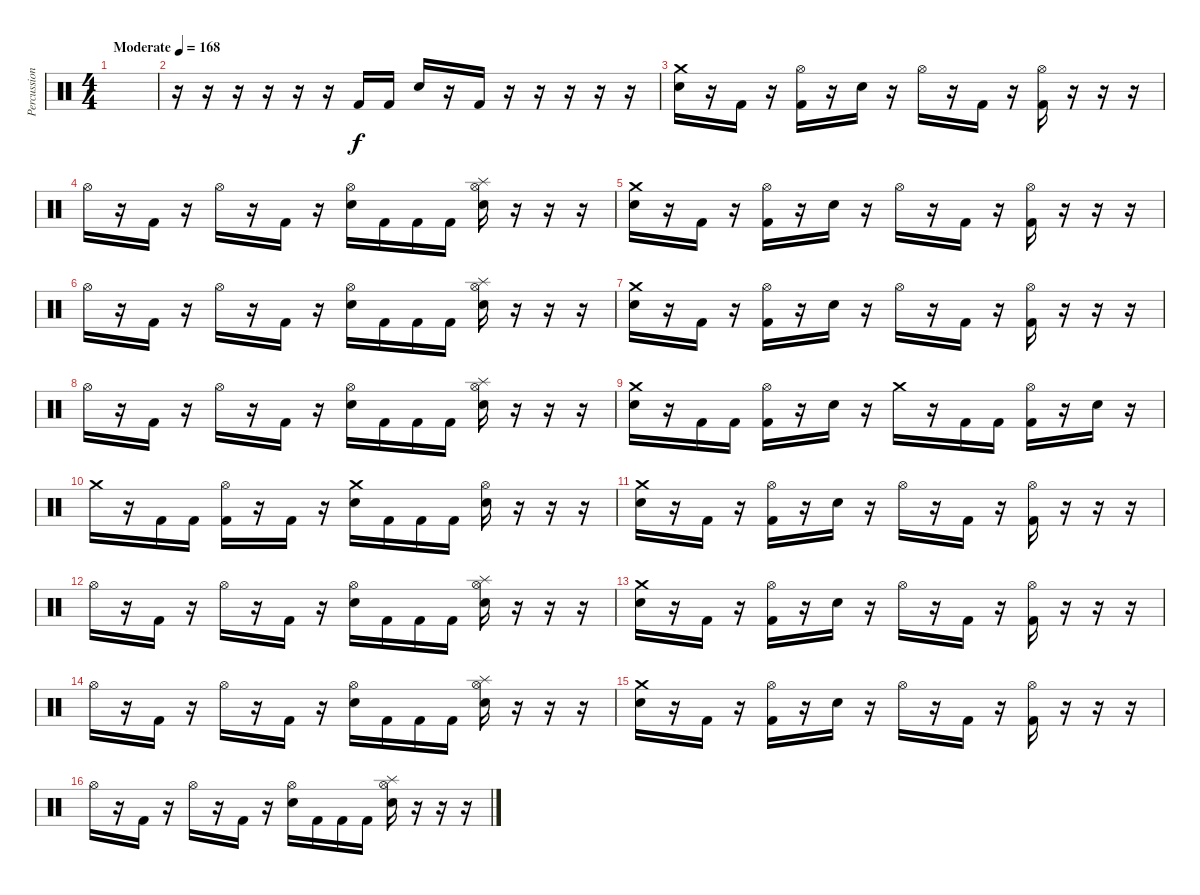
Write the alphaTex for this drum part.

\track ("Percussion" "Percussion") {instrument percussion}
\staff {score}
\articulation defaults
\ts (4 4)
\tempo (168 "Moderate")
\clef neutral
\ks c
|
r.16 r.16 r.16 r.16 r.16 r.16 "Kick (hit) 2".16 "Kick (hit) 2".16 "Electric Snare (hit)".16 r.16 "Kick (hit) 2".16 r.16 r.16 r.16 r.16 r.16 |
("Crash medium (hit)" "Electric Snare (hit)").16 r.16 "Kick (hit) 2".16 r.16 ("Hi-Hat (open)" "Kick (hit) 2").16 r.16 "Electric Snare (hit)".16 r.16 "Hi-Hat (open)".16 r.16 "Kick (hit) 2".16 r.16 ("Hi-Hat (open)" "Kick (hit) 2").16 r.16 r.16 r.16 |
"Hi-Hat (open)".16 r.16 "Kick (hit) 2".16 r.16 "Hi-Hat (open)".16 r.16 "Kick (hit) 2".16 r.16 ("Hi-Hat (open)" "Electric Snare (hit)").16 "Kick (hit) 2".16 "Kick (hit) 2".16 "Kick (hit) 2".16 ("Hi-Hat (open)" "Splash (hit)" "Electric Snare (hit)").16 r.16 r.16 r.16 |
("Crash medium (hit)" "Electric Snare (hit)").16 r.16 "Kick (hit) 2".16 r.16 ("Hi-Hat (open)" "Kick (hit) 2").16 r.16 "Electric Snare (hit)".16 r.16 "Hi-Hat (open)".16 r.16 "Kick (hit) 2".16 r.16 ("Hi-Hat (open)" "Kick (hit) 2").16 r.16 r.16 r.16 |
"Hi-Hat (open)".16 r.16 "Kick (hit) 2".16 r.16 "Hi-Hat (open)".16 r.16 "Kick (hit) 2".16 r.16 ("Hi-Hat (open)" "Electric Snare (hit)").16 "Kick (hit) 2".16 "Kick (hit) 2".16 "Kick (hit) 2".16 ("Hi-Hat (open)" "Splash (hit)" "Electric Snare (hit)").16 r.16 r.16 r.16 |
("Crash medium (hit)" "Electric Snare (hit)").16 r.16 "Kick (hit) 2".16 r.16 ("Hi-Hat (open)" "Kick (hit) 2").16 r.16 "Electric Snare (hit)".16 r.16 "Hi-Hat (open)".16 r.16 "Kick (hit) 2".16 r.16 ("Hi-Hat (open)" "Kick (hit) 2").16 r.16 r.16 r.16 |
"Hi-Hat (open)".16 r.16 "Kick (hit) 2".16 r.16 "Hi-Hat (open)".16 r.16 "Kick (hit) 2".16 r.16 ("Hi-Hat (open)" "Electric Snare (hit)").16 "Kick (hit) 2".16 "Kick (hit) 2".16 "Kick (hit) 2".16 ("Hi-Hat (open)" "Splash (hit)" "Electric Snare (hit)").16 r.16 r.16 r.16 |
("Crash medium (hit)" "Electric Snare (hit)").16 r.16 "Kick (hit) 2".16 "Kick (hit) 2".16 ("Hi-Hat (open)" "Kick (hit) 2").16 r.16 "Electric Snare (hit)".16 r.16 "Crash medium (hit)".16 r.16 "Kick (hit) 2".16 "Kick (hit) 2".16 ("Hi-Hat (open)" "Kick (hit) 2").16 r.16 "Electric Snare (hit)".16 r.16 |
"Crash medium (hit)".16 r.16 "Kick (hit) 2".16 "Kick (hit) 2".16 ("Hi-Hat (open)" "Kick (hit) 2").16 r.16 "Kick (hit) 2".16 r.16 ("Crash medium (hit)" "Electric Snare (hit)").16 "Kick (hit) 2".16 "Kick (hit) 2".16 "Kick (hit) 2".16 ("Hi-Hat (open)" "Electric Snare (hit)").16 r.16 r.16 r.16 |
("Crash medium (hit)" "Electric Snare (hit)").16 r.16 "Kick (hit) 2".16 r.16 ("Hi-Hat (open)" "Kick (hit) 2").16 r.16 "Electric Snare (hit)".16 r.16 "Hi-Hat (open)".16 r.16 "Kick (hit) 2".16 r.16 ("Hi-Hat (open)" "Kick (hit) 2").16 r.16 r.16 r.16 |
"Hi-Hat (open)".16 r.16 "Kick (hit) 2".16 r.16 "Hi-Hat (open)".16 r.16 "Kick (hit) 2".16 r.16 ("Hi-Hat (open)" "Electric Snare (hit)").16 "Kick (hit) 2".16 "Kick (hit) 2".16 "Kick (hit) 2".16 ("Hi-Hat (open)" "Splash (hit)" "Electric Snare (hit)").16 r.16 r.16 r.16 |
("Crash medium (hit)" "Electric Snare (hit)").16 r.16 "Kick (hit) 2".16 r.16 ("Hi-Hat (open)" "Kick (hit) 2").16 r.16 "Electric Snare (hit)".16 r.16 "Hi-Hat (open)".16 r.16 "Kick (hit) 2".16 r.16 ("Hi-Hat (open)" "Kick (hit) 2").16 r.16 r.16 r.16 |
"Hi-Hat (open)".16 r.16 "Kick (hit) 2".16 r.16 "Hi-Hat (open)".16 r.16 "Kick (hit) 2".16 r.16 ("Hi-Hat (open)" "Electric Snare (hit)").16 "Kick (hit) 2".16 "Kick (hit) 2".16 "Kick (hit) 2".16 ("Hi-Hat (open)" "Splash (hit)" "Electric Snare (hit)").16 r.16 r.16 r.16 |
("Crash medium (hit)" "Electric Snare (hit)").16 r.16 "Kick (hit) 2".16 r.16 ("Hi-Hat (open)" "Kick (hit) 2").16 r.16 "Electric Snare (hit)".16 r.16 "Hi-Hat (open)".16 r.16 "Kick (hit) 2".16 r.16 ("Hi-Hat (open)" "Kick (hit) 2").16 r.16 r.16 r.16 |
"Hi-Hat (open)".16 r.16 "Kick (hit) 2".16 r.16 "Hi-Hat (open)".16 r.16 "Kick (hit) 2".16 r.16 ("Hi-Hat (open)" "Electric Snare (hit)").16 "Kick (hit) 2".16 "Kick (hit) 2".16 "Kick (hit) 2".16 ("Hi-Hat (open)" "Splash (hit)" "Electric Snare (hit)").16 r.16 r.16 r.16
